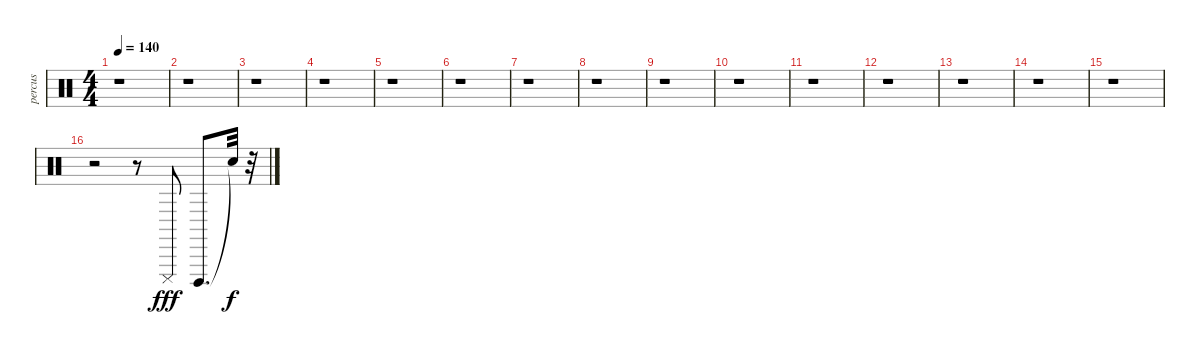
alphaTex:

\track ("percus" "percus") {instrument percussion}
\staff {score}
\articulation defaults
\ts (4 4)
\tempo 140
\clef neutral
\ks c
r.1{dy f} |
r.1 |
r.1 |
r.1 |
r.1 |
r.1 |
r.1 |
r.1 |
r.1 |
r.1 |
r.1 |
r.1 |
r.1 |
r.1 |
r.1 |
r.2 r.8 "Cuica (mute)".8{dy fff} "Cuica (open)".8{d} "Snare (hit)"{t}.32{dy f} r.32
